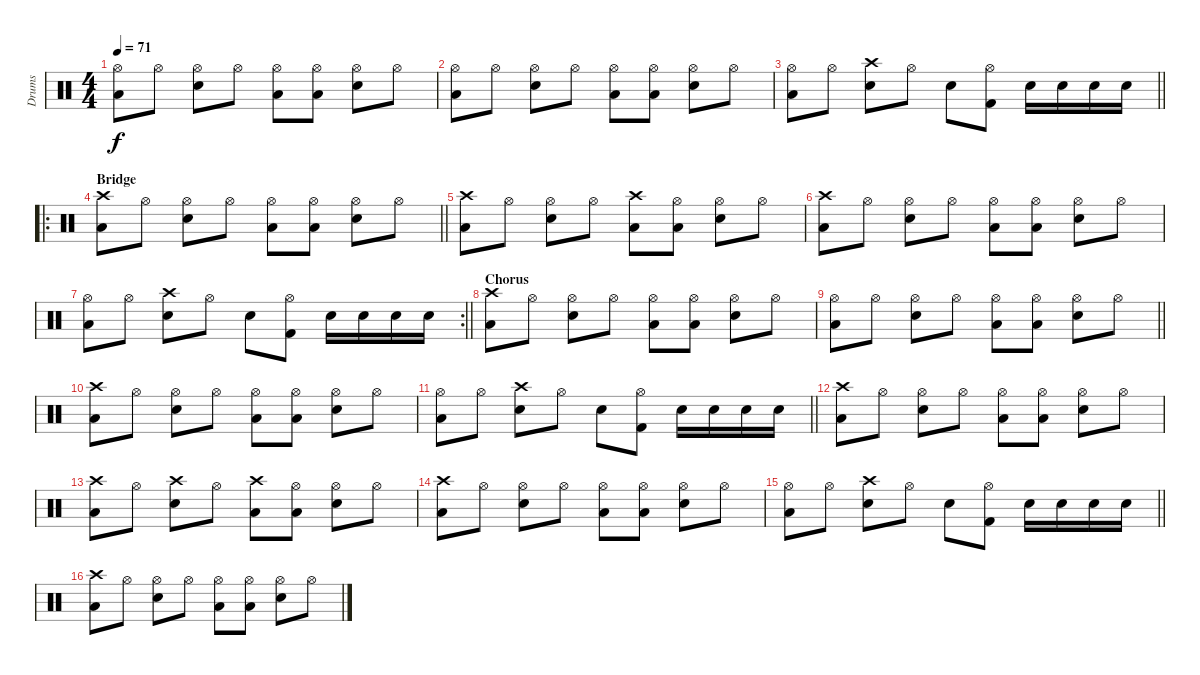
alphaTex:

\track ("Drums" "Drums") {instrument percussion}
\staff {score}
\articulation defaults
\ts (4 4)
\tempo 71
\clef neutral
\ks c
("Hi-Hat (open)" "Low Floor Tom (hit)").8{dy f} "Hi-Hat (open)".8 ("Hi-Hat (open)" "Snare (hit) 2").8 "Hi-Hat (open)".8 ("Hi-Hat (open)" "Low Floor Tom (hit)").8 ("Hi-Hat (open)" "Low Floor Tom (hit)").8 ("Hi-Hat (open)" "Snare (hit) 2").8 "Hi-Hat (open)".8 |
("Hi-Hat (open)" "Low Floor Tom (hit)").8 "Hi-Hat (open)".8 ("Hi-Hat (open)" "Snare (hit) 2").8 "Hi-Hat (open)".8 ("Hi-Hat (open)" "Low Floor Tom (hit)").8 ("Hi-Hat (open)" "Low Floor Tom (hit)").8 ("Hi-Hat (open)" "Snare (hit) 2").8 "Hi-Hat (open)".8 |
\barLineRight lightlight
("Hi-Hat (open)" "Low Floor Tom (hit)").8 "Hi-Hat (open)".8 ("Crash high (hit)" "Snare (hit) 2").8 "Hi-Hat (open)".8 "Snare (hit) 2".8 ("Kick (hit) 2" "Hi-Hat (open)").8 "Snare (hit) 2".16 "Snare (hit) 2".16 "Snare (hit) 2".16 "Snare (hit) 2".16 |
\ro
\section ("" "Bridge")
\barLineRight lightlight
("Crash high (hit)" "Low Floor Tom (hit)").8 "Hi-Hat (open)".8 ("Hi-Hat (open)" "Snare (hit) 2").8 "Hi-Hat (open)".8 ("Hi-Hat (open)" "Low Floor Tom (hit)").8 ("Hi-Hat (open)" "Low Floor Tom (hit)").8 ("Hi-Hat (open)" "Snare (hit) 2").8 "Hi-Hat (open)".8 |
("Crash high (hit)" "Low Floor Tom (hit)").8 "Hi-Hat (open)".8 ("Hi-Hat (open)" "Snare (hit) 2").8 "Hi-Hat (open)".8 ("Low Floor Tom (hit)" "Crash high (hit)").8 ("Hi-Hat (open)" "Low Floor Tom (hit)").8 ("Hi-Hat (open)" "Snare (hit) 2").8 "Hi-Hat (open)".8 |
("Crash high (hit)" "Low Floor Tom (hit)").8 "Hi-Hat (open)".8 ("Hi-Hat (open)" "Snare (hit) 2").8 "Hi-Hat (open)".8 ("Hi-Hat (open)" "Low Floor Tom (hit)").8 ("Hi-Hat (open)" "Low Floor Tom (hit)").8 ("Hi-Hat (open)" "Snare (hit) 2").8 "Hi-Hat (open)".8 |
\rc 2
\barLineRight lightlight
("Hi-Hat (open)" "Low Floor Tom (hit)").8 "Hi-Hat (open)".8 ("Crash high (hit)" "Snare (hit) 2").8 "Hi-Hat (open)".8 "Snare (hit) 2".8 ("Kick (hit) 2" "Hi-Hat (open)").8 "Snare (hit) 2".16 "Snare (hit) 2".16 "Snare (hit) 2".16 "Snare (hit) 2".16 |
\section ("" "Chorus")
("Crash high (hit)" "Low Floor Tom (hit)").8 "Hi-Hat (open)".8 ("Hi-Hat (open)" "Snare (hit) 2").8 "Hi-Hat (open)".8 ("Hi-Hat (open)" "Low Floor Tom (hit)").8 ("Hi-Hat (open)" "Low Floor Tom (hit)").8 ("Hi-Hat (open)" "Snare (hit) 2").8 "Hi-Hat (open)".8 |
\barLineRight lightlight
("Hi-Hat (open)" "Low Floor Tom (hit)").8 "Hi-Hat (open)".8 ("Hi-Hat (open)" "Snare (hit) 2").8 "Hi-Hat (open)".8 ("Hi-Hat (open)" "Low Floor Tom (hit)").8 ("Hi-Hat (open)" "Low Floor Tom (hit)").8 ("Hi-Hat (open)" "Snare (hit) 2").8 "Hi-Hat (open)".8 |
("Crash high (hit)" "Low Floor Tom (hit)").8 "Hi-Hat (open)".8 ("Hi-Hat (open)" "Snare (hit) 2").8 "Hi-Hat (open)".8 ("Hi-Hat (open)" "Low Floor Tom (hit)").8 ("Hi-Hat (open)" "Low Floor Tom (hit)").8 ("Hi-Hat (open)" "Snare (hit) 2").8 "Hi-Hat (open)".8 |
\barLineRight lightlight
("Hi-Hat (open)" "Low Floor Tom (hit)").8 "Hi-Hat (open)".8 ("Crash high (hit)" "Snare (hit) 2").8 "Hi-Hat (open)".8 "Snare (hit) 2".8 ("Kick (hit) 2" "Hi-Hat (open)").8 "Snare (hit) 2".16 "Snare (hit) 2".16 "Snare (hit) 2".16 "Snare (hit) 2".16 |
("Crash high (hit)" "Low Floor Tom (hit)").8 "Hi-Hat (open)".8 ("Hi-Hat (open)" "Snare (hit) 2").8 "Hi-Hat (open)".8 ("Hi-Hat (open)" "Low Floor Tom (hit)").8 ("Hi-Hat (open)" "Low Floor Tom (hit)").8 ("Hi-Hat (open)" "Snare (hit) 2").8 "Hi-Hat (open)".8 |
("Crash high (hit)" "Low Floor Tom (hit)").8 "Hi-Hat (open)".8 ("Crash high (hit)" "Snare (hit) 2").8 "Hi-Hat (open)".8 ("Crash high (hit)" "Low Floor Tom (hit)").8 ("Hi-Hat (open)" "Low Floor Tom (hit)").8 ("Hi-Hat (open)" "Snare (hit) 2").8 "Hi-Hat (open)".8 |
("Crash high (hit)" "Low Floor Tom (hit)").8 "Hi-Hat (open)".8 ("Hi-Hat (open)" "Snare (hit) 2").8 "Hi-Hat (open)".8 ("Hi-Hat (open)" "Low Floor Tom (hit)").8 ("Hi-Hat (open)" "Low Floor Tom (hit)").8 ("Hi-Hat (open)" "Snare (hit) 2").8 "Hi-Hat (open)".8 |
\barLineRight lightlight
("Hi-Hat (open)" "Low Floor Tom (hit)").8 "Hi-Hat (open)".8 ("Crash high (hit)" "Snare (hit) 2").8 "Hi-Hat (open)".8 "Snare (hit) 2".8 ("Kick (hit) 2" "Hi-Hat (open)").8 "Snare (hit) 2".16 "Snare (hit) 2".16 "Snare (hit) 2".16 "Snare (hit) 2".16 |
("Crash high (hit)" "Low Floor Tom (hit)").8 "Hi-Hat (open)".8 ("Hi-Hat (open)" "Snare (hit) 2").8 "Hi-Hat (open)".8 ("Hi-Hat (open)" "Low Floor Tom (hit)").8 ("Hi-Hat (open)" "Low Floor Tom (hit)").8 ("Hi-Hat (open)" "Snare (hit) 2").8 "Hi-Hat (open)".8
